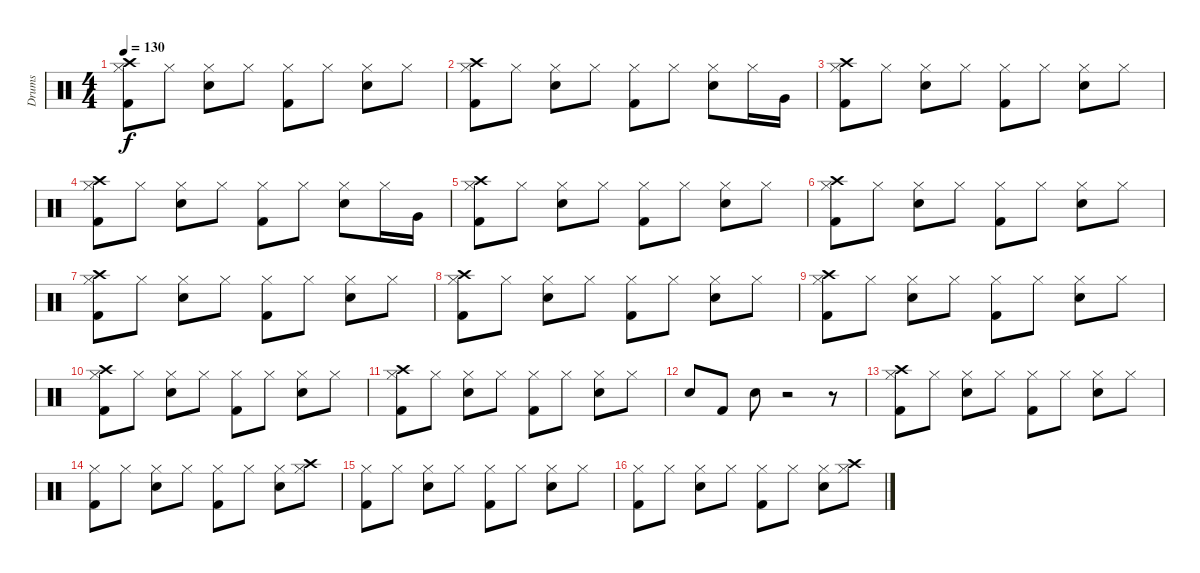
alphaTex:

\track ("Drums" "Drums") {instrument percussion}
\staff {score}
\articulation defaults
\ts (4 4)
\tempo 130
\clef neutral
\ks c
("Kick (hit) 2" "Hi-Hat (closed)" "Crash high (hit)").8{dy f} "Hi-Hat (closed)".8 ("Snare (hit) 2" "Hi-Hat (closed)").8 "Hi-Hat (closed)".8 ("Kick (hit) 2" "Hi-Hat (closed)").8 "Hi-Hat (closed)".8 ("Snare (hit) 2" "Hi-Hat (closed)").8 "Hi-Hat (closed)".8 |
("Kick (hit) 2" "Hi-Hat (closed)" "Crash high (hit)").8 "Hi-Hat (closed)".8 ("Snare (hit) 2" "Hi-Hat (closed)").8 "Hi-Hat (closed)".8 ("Kick (hit) 2" "Hi-Hat (closed)").8 "Hi-Hat (closed)".8 ("Snare (hit) 2" "Hi-Hat (closed)").8 "Hi-Hat (closed)".16 "Very Low Tom (hit)".16 |
("Kick (hit) 2" "Hi-Hat (closed)" "Crash high (hit)").8 "Hi-Hat (closed)".8 ("Snare (hit) 2" "Hi-Hat (closed)").8 "Hi-Hat (closed)".8 ("Kick (hit) 2" "Hi-Hat (closed)").8 "Hi-Hat (closed)".8 ("Snare (hit) 2" "Hi-Hat (closed)").8 "Hi-Hat (closed)".8 |
("Kick (hit) 2" "Hi-Hat (closed)" "Crash high (hit)").8 "Hi-Hat (closed)".8 ("Snare (hit) 2" "Hi-Hat (closed)").8 "Hi-Hat (closed)".8 ("Kick (hit) 2" "Hi-Hat (closed)").8 "Hi-Hat (closed)".8 ("Snare (hit) 2" "Hi-Hat (closed)").8 "Hi-Hat (closed)".16 "Very Low Tom (hit)".16 |
("Kick (hit) 2" "Hi-Hat (closed)" "Crash high (hit)").8 "Hi-Hat (closed)".8 ("Snare (hit) 2" "Hi-Hat (closed)").8 "Hi-Hat (closed)".8 ("Kick (hit) 2" "Hi-Hat (closed)").8 "Hi-Hat (closed)".8 ("Snare (hit) 2" "Hi-Hat (closed)").8 "Hi-Hat (closed)".8 |
("Kick (hit) 2" "Hi-Hat (closed)" "Crash high (hit)").8 "Hi-Hat (closed)".8 ("Snare (hit) 2" "Hi-Hat (closed)").8 "Hi-Hat (closed)".8 ("Kick (hit) 2" "Hi-Hat (closed)").8 "Hi-Hat (closed)".8 ("Snare (hit) 2" "Hi-Hat (closed)").8 "Hi-Hat (closed)".8 |
("Kick (hit) 2" "Hi-Hat (closed)" "Crash high (hit)").8 "Hi-Hat (closed)".8 ("Snare (hit) 2" "Hi-Hat (closed)").8 "Hi-Hat (closed)".8 ("Kick (hit) 2" "Hi-Hat (closed)").8 "Hi-Hat (closed)".8 ("Snare (hit) 2" "Hi-Hat (closed)").8 "Hi-Hat (closed)".8 |
("Kick (hit) 2" "Hi-Hat (closed)" "Crash high (hit)").8 "Hi-Hat (closed)".8 ("Snare (hit) 2" "Hi-Hat (closed)").8 "Hi-Hat (closed)".8 ("Kick (hit) 2" "Hi-Hat (closed)").8 "Hi-Hat (closed)".8 ("Snare (hit) 2" "Hi-Hat (closed)").8 "Hi-Hat (closed)".8 |
("Kick (hit) 2" "Hi-Hat (closed)" "Crash high (hit)").8 "Hi-Hat (closed)".8 ("Snare (hit) 2" "Hi-Hat (closed)").8 "Hi-Hat (closed)".8 ("Kick (hit) 2" "Hi-Hat (closed)").8 "Hi-Hat (closed)".8 ("Snare (hit) 2" "Hi-Hat (closed)").8 "Hi-Hat (closed)".8 |
("Kick (hit) 2" "Hi-Hat (closed)" "Crash high (hit)").8 "Hi-Hat (closed)".8 ("Snare (hit) 2" "Hi-Hat (closed)").8 "Hi-Hat (closed)".8 ("Kick (hit) 2" "Hi-Hat (closed)").8 "Hi-Hat (closed)".8 ("Snare (hit) 2" "Hi-Hat (closed)").8 "Hi-Hat (closed)".8 |
("Kick (hit) 2" "Hi-Hat (closed)" "Crash high (hit)").8 "Hi-Hat (closed)".8 ("Snare (hit) 2" "Hi-Hat (closed)").8 "Hi-Hat (closed)".8 ("Kick (hit) 2" "Hi-Hat (closed)").8 "Hi-Hat (closed)".8 ("Snare (hit) 2" "Hi-Hat (closed)").8 "Hi-Hat (closed)".8 |
"Snare (hit) 2".8 "Kick (hit) 2".8 "Snare (hit) 2".8 r.2 r.8 |
("Kick (hit) 2" "Hi-Hat (closed)" "Crash high (hit)").8 "Hi-Hat (closed)".8 ("Snare (hit) 2" "Hi-Hat (closed)").8 "Hi-Hat (closed)".8 ("Kick (hit) 2" "Hi-Hat (closed)").8 "Hi-Hat (closed)".8 ("Snare (hit) 2" "Hi-Hat (closed)").8 "Hi-Hat (closed)".8 |
("Kick (hit) 2" "Hi-Hat (closed)").8 "Hi-Hat (closed)".8 ("Snare (hit) 2" "Hi-Hat (closed)").8 "Hi-Hat (closed)".8 ("Kick (hit) 2" "Hi-Hat (closed)").8 "Hi-Hat (closed)".8 ("Snare (hit) 2" "Hi-Hat (closed)").8 ("Hi-Hat (closed)" "Crash high (hit)").8 |
("Kick (hit) 2" "Hi-Hat (closed)").8 "Hi-Hat (closed)".8 ("Snare (hit) 2" "Hi-Hat (closed)").8 "Hi-Hat (closed)".8 ("Kick (hit) 2" "Hi-Hat (closed)").8 "Hi-Hat (closed)".8 ("Snare (hit) 2" "Hi-Hat (closed)").8 "Hi-Hat (closed)".8 |
("Kick (hit) 2" "Hi-Hat (closed)").8 "Hi-Hat (closed)".8 ("Snare (hit) 2" "Hi-Hat (closed)").8 "Hi-Hat (closed)".8 ("Kick (hit) 2" "Hi-Hat (closed)").8 "Hi-Hat (closed)".8 ("Snare (hit) 2" "Hi-Hat (closed)").8 ("Hi-Hat (closed)" "Crash high (hit)").8
